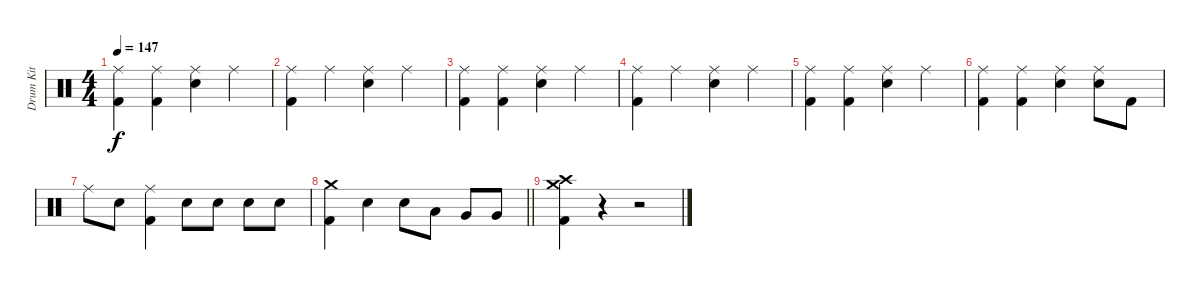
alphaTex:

\track ("Drum Kit" "Drum Kit") {instrument percussion}
\staff {score}
\articulation defaults
\ts (4 4)
\tempo 147
\clef neutral
\ks c
("Ride (middle)" "Kick (hit) 2").4{dy f} ("Ride (middle)" "Kick (hit) 2").4 ("Ride (middle)" "Snare (hit) 2").4 "Ride (middle)".4 |
("Ride (middle)" "Kick (hit) 2").4 "Ride (middle)".4 ("Ride (middle)" "Snare (hit) 2").4 "Ride (middle)".4 |
("Ride (middle)" "Kick (hit) 2").4 ("Ride (middle)" "Kick (hit) 2").4 ("Ride (middle)" "Snare (hit) 2").4 "Ride (middle)".4 |
("Ride (middle)" "Kick (hit) 2").4 "Ride (middle)".4 ("Ride (middle)" "Snare (hit) 2").4 "Ride (middle)".4 |
("Ride (middle)" "Kick (hit) 2").4 ("Ride (middle)" "Kick (hit) 2").4 ("Ride (middle)" "Snare (hit) 2").4 "Ride (middle)".4 |
("Ride (middle)" "Kick (hit) 2").4 ("Ride (middle)" "Kick (hit) 2").4 ("Ride (middle)" "Snare (hit) 2").4 ("Ride (middle)" "Snare (hit) 2").8 "Kick (hit) 2".8 |
"Ride (middle)".8 "Snare (hit) 2".8 ("Ride (middle)" "Kick (hit) 2").4 "Snare (hit) 2".8 "Snare (hit) 2".8 "Snare (hit) 2".8 "Snare (hit) 2".8 |
\barLineRight lightlight
("Crash medium (hit)" "Kick (hit) 2").4 "Snare (hit) 2".4 "Snare (hit) 2".8 "Low Tom (hit)".8 "Very Low Tom (hit)".8 "Very Low Tom (hit)".8 |
("Crash medium (hit)" "Crash high (hit)" "Kick (hit) 2").4 r.4 r.2
